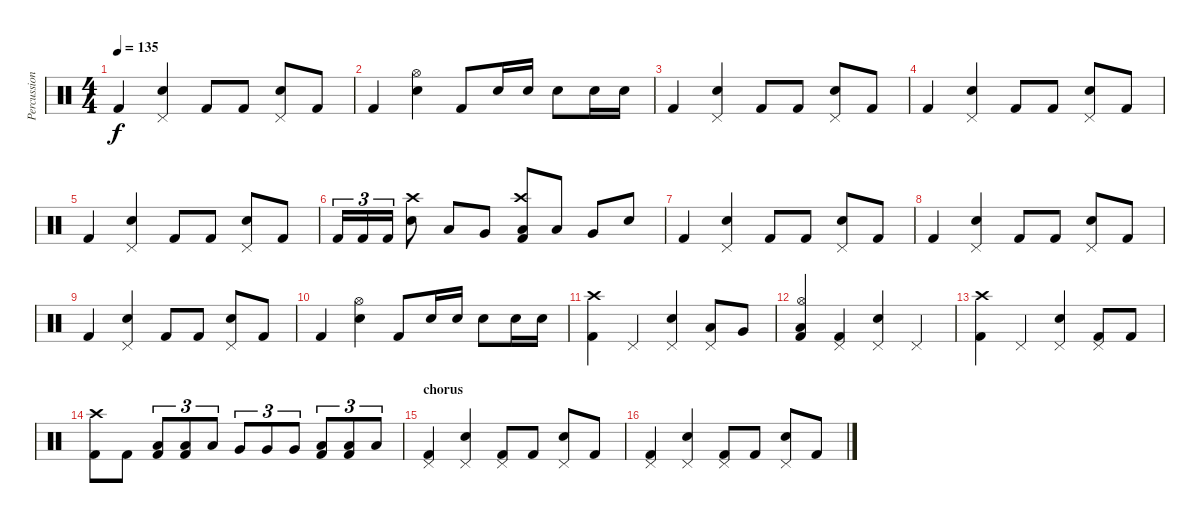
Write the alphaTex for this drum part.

\track ("Percussion" "Percussion") {instrument percussion}
\staff {score}
\articulation defaults
\ts (4 4)
\tempo 135
\clef neutral
\ks c "Kick (hit) 2".4{dy f}
("Pedal Hi-Hat (hit)" "Electric Snare (hit)").4 "Kick (hit) 2".8 "Kick (hit) 2".8 ("Pedal Hi-Hat (hit)" "Electric Snare (hit)").8 "Kick (hit) 2".8 |
"Kick (hit) 2".4 ("Hi-Hat (open)" "Electric Snare (hit)").4 "Kick (hit) 2".8 "Electric Snare (hit)".16 "Electric Snare (hit)".16 "Electric Snare (hit)".8 "Electric Snare (hit)".16 "Electric Snare (hit)".16 |
"Kick (hit) 2".4 ("Pedal Hi-Hat (hit)" "Electric Snare (hit)").4 "Kick (hit) 2".8 "Kick (hit) 2".8 ("Pedal Hi-Hat (hit)" "Electric Snare (hit)").8 "Kick (hit) 2".8 |
"Kick (hit) 2".4 ("Pedal Hi-Hat (hit)" "Electric Snare (hit)").4 "Kick (hit) 2".8 "Kick (hit) 2".8 ("Pedal Hi-Hat (hit)" "Electric Snare (hit)").8 "Kick (hit) 2".8 |
"Kick (hit) 2".4 ("Pedal Hi-Hat (hit)" "Electric Snare (hit)").4 "Kick (hit) 2".8 "Kick (hit) 2".8 ("Pedal Hi-Hat (hit)" "Electric Snare (hit)").8 "Kick (hit) 2".8 |
"Kick (hit) 2".16{tu (3 2)} "Kick (hit) 2".16{tu (3 2)} "Kick (hit) 2".16{tu (3 2)} ("Crash high (hit)" "Electric Snare (hit)").8 "Low Tom (hit)".8 "Very Low Tom (hit)".8 ("Crash high (hit)" "Low Floor Tom (hit)" "Kick (hit) 2").8 "Low Tom (hit)".8 "Very Low Tom (hit)".8 "Electric Snare (hit)".8 |
"Kick (hit) 2".4 ("Pedal Hi-Hat (hit)" "Electric Snare (hit)").4 "Kick (hit) 2".8 "Kick (hit) 2".8 ("Pedal Hi-Hat (hit)" "Electric Snare (hit)").8 "Kick (hit) 2".8 |
"Kick (hit) 2".4 ("Pedal Hi-Hat (hit)" "Electric Snare (hit)").4 "Kick (hit) 2".8 "Kick (hit) 2".8 ("Pedal Hi-Hat (hit)" "Electric Snare (hit)").8 "Kick (hit) 2".8 |
"Kick (hit) 2".4 ("Pedal Hi-Hat (hit)" "Electric Snare (hit)").4 "Kick (hit) 2".8 "Kick (hit) 2".8 ("Pedal Hi-Hat (hit)" "Electric Snare (hit)").8 "Kick (hit) 2".8 |
"Kick (hit) 2".4 ("Hi-Hat (open)" "Electric Snare (hit)").4 "Kick (hit) 2".8 "Electric Snare (hit)".16 "Electric Snare (hit)".16 "Electric Snare (hit)".8 "Electric Snare (hit)".16 "Electric Snare (hit)".16 |
("Crash high (hit)" "Kick (hit) 2").4 "Pedal Hi-Hat (hit)".4 ("Pedal Hi-Hat (hit)" "Electric Snare (hit)").4 ("Pedal Hi-Hat (hit)" "Low Floor Tom (hit)").8 "Very Low Tom (hit)".8 |
("Hi-Hat (open)" "Low Tom (hit)" "Kick (hit) 2").4 ("Pedal Hi-Hat (hit)" "Kick (hit) 2").4 ("Pedal Hi-Hat (hit)" "Electric Snare (hit)").4 "Pedal Hi-Hat (hit)".4 |
("Crash high (hit)" "Kick (hit) 2").4 "Pedal Hi-Hat (hit)".4 ("Pedal Hi-Hat (hit)" "Electric Snare (hit)").4 ("Pedal Hi-Hat (hit)" "Kick (hit) 2").8 "Kick (hit) 2".8 |
("Crash high (hit)" "Kick (hit) 2").8 "Kick (hit) 2".8 ("Low Floor Tom (hit)" "Kick (hit) 2").8{tu (3 2)} ("Low Floor Tom (hit)" "Kick (hit) 2").8{tu (3 2)} "Low Floor Tom (hit)".8{tu (3 2)} "Very Low Tom (hit)".8{tu (3 2)} "Very Low Tom (hit)".8{tu (3 2)} "Very Low Tom (hit)".8{tu (3 2)} ("Low Tom (hit)" "Kick (hit) 2").8{tu (3 2)} ("Low Tom (hit)" "Kick (hit) 2").8{tu (3 2)} "Low Tom (hit)".8{tu (3 2)} |
\section ("" "chorus")
("Pedal Hi-Hat (hit)" "Kick (hit) 2").4 ("Pedal Hi-Hat (hit)" "Electric Snare (hit)").4 ("Pedal Hi-Hat (hit)" "Kick (hit) 2").8 "Kick (hit) 2".8 ("Pedal Hi-Hat (hit)" "Electric Snare (hit)").8 "Kick (hit) 2".8 |
("Pedal Hi-Hat (hit)" "Kick (hit) 2").4 ("Pedal Hi-Hat (hit)" "Electric Snare (hit)").4 ("Pedal Hi-Hat (hit)" "Kick (hit) 2").8 "Kick (hit) 2".8 ("Pedal Hi-Hat (hit)" "Electric Snare (hit)").8 "Kick (hit) 2".8
